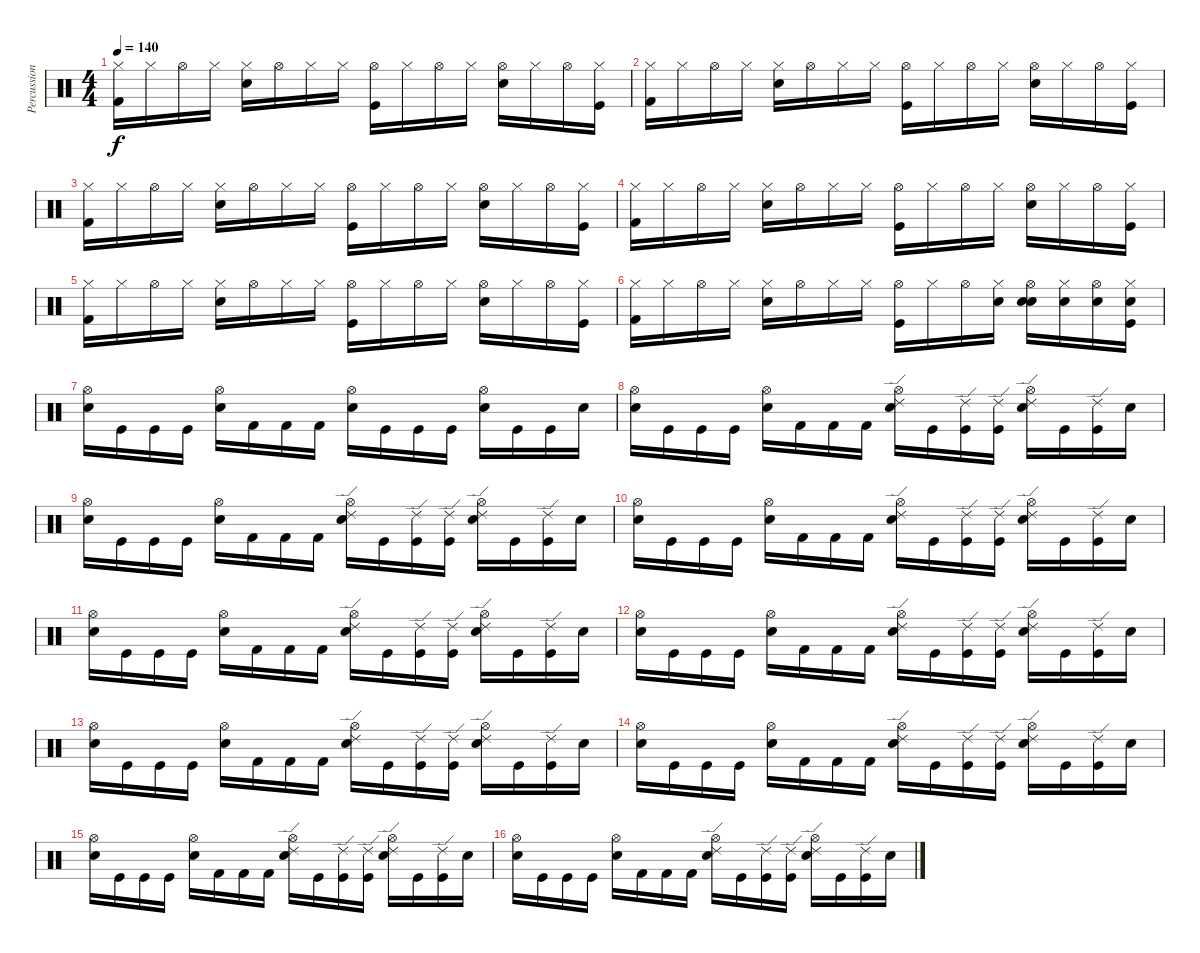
\track ("Percussion" "Percussion") {instrument percussion}
\staff {score}
\articulation defaults
\ts (4 4)
\tempo 140
\clef neutral
\ks c
("Hi-Hat (closed)" "Kick (hit) 2").16{dy f} "Hi-Hat (closed)".16 "Hi-Hat (open)".16 "Hi-Hat (closed)".16 ("Hi-Hat (closed)" "Snare (hit) 2").16 "Hi-Hat (open)".16 "Hi-Hat (closed)".16 "Hi-Hat (closed)".16 ("Hi-Hat (open)" "Kick (hit)").16 "Hi-Hat (closed)".16 "Hi-Hat (open)".16 "Hi-Hat (closed)".16 ("Hi-Hat (open)" "Snare (hit) 2").16 "Hi-Hat (closed)".16 "Hi-Hat (open)".16 ("Hi-Hat (closed)" "Kick (hit)").16 |
("Hi-Hat (closed)" "Kick (hit) 2").16 "Hi-Hat (closed)".16 "Hi-Hat (open)".16 "Hi-Hat (closed)".16 ("Hi-Hat (closed)" "Snare (hit) 2").16 "Hi-Hat (open)".16 "Hi-Hat (closed)".16 "Hi-Hat (closed)".16 ("Hi-Hat (open)" "Kick (hit)").16 "Hi-Hat (closed)".16 "Hi-Hat (open)".16 "Hi-Hat (closed)".16 ("Hi-Hat (open)" "Snare (hit) 2").16 "Hi-Hat (closed)".16 "Hi-Hat (open)".16 ("Hi-Hat (closed)" "Kick (hit)").16 |
("Hi-Hat (closed)" "Kick (hit) 2").16 "Hi-Hat (closed)".16 "Hi-Hat (open)".16 "Hi-Hat (closed)".16 ("Hi-Hat (closed)" "Snare (hit) 2").16 "Hi-Hat (open)".16 "Hi-Hat (closed)".16 "Hi-Hat (closed)".16 ("Hi-Hat (open)" "Kick (hit)").16 "Hi-Hat (closed)".16 "Hi-Hat (open)".16 "Hi-Hat (closed)".16 ("Hi-Hat (open)" "Snare (hit) 2").16 "Hi-Hat (closed)".16 "Hi-Hat (open)".16 ("Hi-Hat (closed)" "Kick (hit)").16 |
("Hi-Hat (closed)" "Kick (hit) 2").16 "Hi-Hat (closed)".16 "Hi-Hat (open)".16 "Hi-Hat (closed)".16 ("Hi-Hat (closed)" "Snare (hit) 2").16 "Hi-Hat (open)".16 "Hi-Hat (closed)".16 "Hi-Hat (closed)".16 ("Hi-Hat (open)" "Kick (hit)").16 "Hi-Hat (closed)".16 "Hi-Hat (open)".16 "Hi-Hat (closed)".16 ("Hi-Hat (open)" "Snare (hit) 2").16 "Hi-Hat (closed)".16 "Hi-Hat (open)".16 ("Hi-Hat (closed)" "Kick (hit)").16 |
("Hi-Hat (closed)" "Kick (hit) 2").16 "Hi-Hat (closed)".16 "Hi-Hat (open)".16 "Hi-Hat (closed)".16 ("Hi-Hat (closed)" "Snare (hit) 2").16 "Hi-Hat (open)".16 "Hi-Hat (closed)".16 "Hi-Hat (closed)".16 ("Hi-Hat (open)" "Kick (hit)").16 "Hi-Hat (closed)".16 "Hi-Hat (open)".16 "Hi-Hat (closed)".16 ("Hi-Hat (open)" "Snare (hit) 2").16 "Hi-Hat (closed)".16 "Hi-Hat (open)".16 ("Hi-Hat (closed)" "Kick (hit)").16 |
("Hi-Hat (closed)" "Kick (hit) 2").16 "Hi-Hat (closed)".16 "Hi-Hat (open)".16 "Hi-Hat (closed)".16 ("Hi-Hat (closed)" "Snare (hit) 2").16 "Hi-Hat (open)".16 "Hi-Hat (closed)".16 "Hi-Hat (closed)".16 ("Hi-Hat (open)" "Kick (hit)").16 "Hi-Hat (closed)".16 "Hi-Hat (open)".16 ("Hi-Hat (closed)" "Snare (hit) 2").16 ("Hi-Hat (open)" "Snare (hit) 2" "Snare (hit) 2").16 ("Hi-Hat (closed)" "Snare (hit) 2").16 ("Hi-Hat (open)" "Snare (hit) 2").16 ("Hi-Hat (closed)" "Snare (hit) 2" "Kick (hit)").16 |
("Hi-Hat (open)" "Snare (hit) 2").16 "Kick (hit)".16 "Kick (hit)".16 "Kick (hit)".16 ("Hi-Hat (open)" "Snare (hit) 2").16 "Kick (hit) 2".16 "Kick (hit) 2".16 "Kick (hit) 2".16 ("Hi-Hat (open)" "Snare (hit) 2").16 "Kick (hit)".16 "Kick (hit)".16 "Kick (hit)".16 ("Hi-Hat (open)" "Snare (hit) 2").16 "Kick (hit)".16 "Kick (hit)".16 "Snare (hit) 2".16 |
("Hi-Hat (open)" "Snare (hit) 2").16 "Kick (hit)".16 "Kick (hit)".16 "Kick (hit)".16 ("Hi-Hat (open)" "Snare (hit) 2").16 "Kick (hit) 2".16 "Kick (hit) 2".16 "Kick (hit) 2".16 ("Hi-Hat (open)" "Snare (hit) 2" "Ride (edge) 2").16 "Kick (hit)".16 ("Kick (hit)" "Ride (edge) 2").16 ("Kick (hit)" "Ride (edge) 2").16 ("Hi-Hat (open)" "Snare (hit) 2" "Ride (edge) 2").16 "Kick (hit)".16 ("Kick (hit)" "Ride (edge) 2").16 "Snare (hit) 2".16 |
("Hi-Hat (open)" "Snare (hit) 2").16 "Kick (hit)".16 "Kick (hit)".16 "Kick (hit)".16 ("Hi-Hat (open)" "Snare (hit) 2").16 "Kick (hit) 2".16 "Kick (hit) 2".16 "Kick (hit) 2".16 ("Hi-Hat (open)" "Snare (hit) 2" "Ride (edge) 2").16 "Kick (hit)".16 ("Kick (hit)" "Ride (edge) 2").16 ("Kick (hit)" "Ride (edge) 2").16 ("Hi-Hat (open)" "Snare (hit) 2" "Ride (edge) 2").16 "Kick (hit)".16 ("Kick (hit)" "Ride (edge) 2").16 "Snare (hit) 2".16 |
("Hi-Hat (open)" "Snare (hit) 2").16 "Kick (hit)".16 "Kick (hit)".16 "Kick (hit)".16 ("Hi-Hat (open)" "Snare (hit) 2").16 "Kick (hit) 2".16 "Kick (hit) 2".16 "Kick (hit) 2".16 ("Hi-Hat (open)" "Snare (hit) 2" "Ride (edge) 2").16 "Kick (hit)".16 ("Kick (hit)" "Ride (edge) 2").16 ("Kick (hit)" "Ride (edge) 2").16 ("Hi-Hat (open)" "Snare (hit) 2" "Ride (edge) 2").16 "Kick (hit)".16 ("Kick (hit)" "Ride (edge) 2").16 "Snare (hit) 2".16 |
("Hi-Hat (open)" "Snare (hit) 2").16 "Kick (hit)".16 "Kick (hit)".16 "Kick (hit)".16 ("Hi-Hat (open)" "Snare (hit) 2").16 "Kick (hit) 2".16 "Kick (hit) 2".16 "Kick (hit) 2".16 ("Hi-Hat (open)" "Snare (hit) 2" "Ride (edge) 2").16 "Kick (hit)".16 ("Kick (hit)" "Ride (edge) 2").16 ("Kick (hit)" "Ride (edge) 2").16 ("Hi-Hat (open)" "Snare (hit) 2" "Ride (edge) 2").16 "Kick (hit)".16 ("Kick (hit)" "Ride (edge) 2").16 "Snare (hit) 2".16 |
("Hi-Hat (open)" "Snare (hit) 2").16 "Kick (hit)".16 "Kick (hit)".16 "Kick (hit)".16 ("Hi-Hat (open)" "Snare (hit) 2").16 "Kick (hit) 2".16 "Kick (hit) 2".16 "Kick (hit) 2".16 ("Hi-Hat (open)" "Snare (hit) 2" "Ride (edge) 2").16 "Kick (hit)".16 ("Kick (hit)" "Ride (edge) 2").16 ("Kick (hit)" "Ride (edge) 2").16 ("Hi-Hat (open)" "Snare (hit) 2" "Ride (edge) 2").16 "Kick (hit)".16 ("Kick (hit)" "Ride (edge) 2").16 "Snare (hit) 2".16 |
("Hi-Hat (open)" "Snare (hit) 2").16 "Kick (hit)".16 "Kick (hit)".16 "Kick (hit)".16 ("Hi-Hat (open)" "Snare (hit) 2").16 "Kick (hit) 2".16 "Kick (hit) 2".16 "Kick (hit) 2".16 ("Hi-Hat (open)" "Snare (hit) 2" "Ride (edge) 2").16 "Kick (hit)".16 ("Kick (hit)" "Ride (edge) 2").16 ("Kick (hit)" "Ride (edge) 2").16 ("Hi-Hat (open)" "Snare (hit) 2" "Ride (edge) 2").16 "Kick (hit)".16 ("Kick (hit)" "Ride (edge) 2").16 "Snare (hit) 2".16 |
("Hi-Hat (open)" "Snare (hit) 2").16 "Kick (hit)".16 "Kick (hit)".16 "Kick (hit)".16 ("Hi-Hat (open)" "Snare (hit) 2").16 "Kick (hit) 2".16 "Kick (hit) 2".16 "Kick (hit) 2".16 ("Hi-Hat (open)" "Snare (hit) 2" "Ride (edge) 2").16 "Kick (hit)".16 ("Kick (hit)" "Ride (edge) 2").16 ("Kick (hit)" "Ride (edge) 2").16 ("Hi-Hat (open)" "Snare (hit) 2" "Ride (edge) 2").16 "Kick (hit)".16 ("Kick (hit)" "Ride (edge) 2").16 "Snare (hit) 2".16 |
("Hi-Hat (open)" "Snare (hit) 2").16 "Kick (hit)".16 "Kick (hit)".16 "Kick (hit)".16 ("Hi-Hat (open)" "Snare (hit) 2").16 "Kick (hit) 2".16 "Kick (hit) 2".16 "Kick (hit) 2".16 ("Hi-Hat (open)" "Snare (hit) 2" "Ride (edge) 2").16 "Kick (hit)".16 ("Kick (hit)" "Ride (edge) 2").16 ("Kick (hit)" "Ride (edge) 2").16 ("Hi-Hat (open)" "Snare (hit) 2" "Ride (edge) 2").16 "Kick (hit)".16 ("Kick (hit)" "Ride (edge) 2").16 "Snare (hit) 2".16 |
("Hi-Hat (open)" "Snare (hit) 2").16 "Kick (hit)".16 "Kick (hit)".16 "Kick (hit)".16 ("Hi-Hat (open)" "Snare (hit) 2").16 "Kick (hit) 2".16 "Kick (hit) 2".16 "Kick (hit) 2".16 ("Hi-Hat (open)" "Snare (hit) 2" "Ride (edge) 2").16 "Kick (hit)".16 ("Kick (hit)" "Ride (edge) 2").16 ("Kick (hit)" "Ride (edge) 2").16 ("Hi-Hat (open)" "Snare (hit) 2" "Ride (edge) 2").16 "Kick (hit)".16 ("Kick (hit)" "Ride (edge) 2").16 "Snare (hit) 2".16
